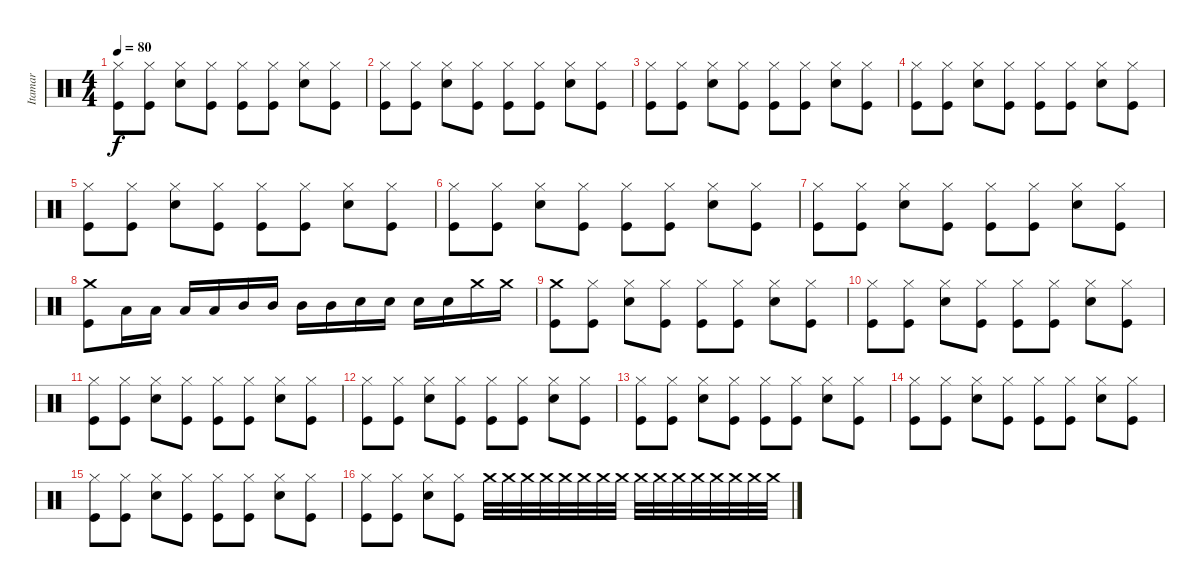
\track ("Itamar" "Itamar") {instrument percussion}
\staff {score}
\articulation defaults
\ts (4 4)
\tempo 80
\clef neutral
\ks c
("Hi-Hat (closed)" "Kick (hit)").8{dy f} ("Hi-Hat (closed)" "Kick (hit)").8 ("Hi-Hat (closed)" "Electric Snare (hit)").8 ("Hi-Hat (closed)" "Kick (hit)").8 ("Hi-Hat (closed)" "Kick (hit)").8 ("Hi-Hat (closed)" "Kick (hit)").8 ("Hi-Hat (closed)" "Electric Snare (hit)").8 ("Hi-Hat (closed)" "Kick (hit)").8 |
("Hi-Hat (closed)" "Kick (hit)").8 ("Hi-Hat (closed)" "Kick (hit)").8 ("Hi-Hat (closed)" "Electric Snare (hit)").8 ("Hi-Hat (closed)" "Kick (hit)").8 ("Hi-Hat (closed)" "Kick (hit)").8 ("Hi-Hat (closed)" "Kick (hit)").8 ("Hi-Hat (closed)" "Electric Snare (hit)").8 ("Hi-Hat (closed)" "Kick (hit)").8 |
("Hi-Hat (closed)" "Kick (hit)").8 ("Hi-Hat (closed)" "Kick (hit)").8 ("Hi-Hat (closed)" "Electric Snare (hit)").8 ("Hi-Hat (closed)" "Kick (hit)").8 ("Hi-Hat (closed)" "Kick (hit)").8 ("Hi-Hat (closed)" "Kick (hit)").8 ("Hi-Hat (closed)" "Electric Snare (hit)").8 ("Hi-Hat (closed)" "Kick (hit)").8 |
("Hi-Hat (closed)" "Kick (hit)").8 ("Hi-Hat (closed)" "Kick (hit)").8 ("Hi-Hat (closed)" "Electric Snare (hit)").8 ("Hi-Hat (closed)" "Kick (hit)").8 ("Hi-Hat (closed)" "Kick (hit)").8 ("Hi-Hat (closed)" "Kick (hit)").8 ("Hi-Hat (closed)" "Electric Snare (hit)").8 ("Hi-Hat (closed)" "Kick (hit)").8 |
("Hi-Hat (closed)" "Kick (hit)").8 ("Hi-Hat (closed)" "Kick (hit)").8 ("Hi-Hat (closed)" "Electric Snare (hit)").8 ("Hi-Hat (closed)" "Kick (hit)").8 ("Hi-Hat (closed)" "Kick (hit)").8 ("Hi-Hat (closed)" "Kick (hit)").8 ("Hi-Hat (closed)" "Electric Snare (hit)").8 ("Hi-Hat (closed)" "Kick (hit)").8 |
("Hi-Hat (closed)" "Kick (hit)").8 ("Hi-Hat (closed)" "Kick (hit)").8 ("Hi-Hat (closed)" "Electric Snare (hit)").8 ("Hi-Hat (closed)" "Kick (hit)").8 ("Hi-Hat (closed)" "Kick (hit)").8 ("Hi-Hat (closed)" "Kick (hit)").8 ("Hi-Hat (closed)" "Electric Snare (hit)").8 ("Hi-Hat (closed)" "Kick (hit)").8 |
("Hi-Hat (closed)" "Kick (hit)").8 ("Hi-Hat (closed)" "Kick (hit)").8 ("Hi-Hat (closed)" "Electric Snare (hit)").8 ("Hi-Hat (closed)" "Kick (hit)").8 ("Hi-Hat (closed)" "Kick (hit)").8 ("Hi-Hat (closed)" "Kick (hit)").8 ("Hi-Hat (closed)" "Electric Snare (hit)").8 ("Hi-Hat (closed)" "Kick (hit)").8 |
("Crash medium (hit)" "Kick (hit)").8 "Low Tom (hit)".16 "Low Tom (hit)".16 "Low Tom (hit)".16 "Low Tom (hit)".16 "Mid Tom (hit)".16 "Mid Tom (hit)".16 "Mid Tom (hit)".16 "Mid Tom (hit)".16 "Electric Snare (hit)".16 "Electric Snare (hit)".16 "Electric Snare (hit)".16 "Electric Snare (hit)".16 "Crash medium (hit)".16 "Crash medium (hit)".16 |
("Crash medium (hit)" "Kick (hit)").8 ("Hi-Hat (closed)" "Kick (hit)").8 ("Hi-Hat (closed)" "Electric Snare (hit)").8 ("Hi-Hat (closed)" "Kick (hit)").8 ("Hi-Hat (closed)" "Kick (hit)").8 ("Hi-Hat (closed)" "Kick (hit)").8 ("Hi-Hat (closed)" "Electric Snare (hit)").8 ("Hi-Hat (closed)" "Kick (hit)").8 |
("Hi-Hat (closed)" "Kick (hit)").8 ("Hi-Hat (closed)" "Kick (hit)").8 ("Hi-Hat (closed)" "Electric Snare (hit)").8 ("Hi-Hat (closed)" "Kick (hit)").8 ("Hi-Hat (closed)" "Kick (hit)").8 ("Hi-Hat (closed)" "Kick (hit)").8 ("Hi-Hat (closed)" "Electric Snare (hit)").8 ("Hi-Hat (closed)" "Kick (hit)").8 |
("Hi-Hat (closed)" "Kick (hit)").8 ("Hi-Hat (closed)" "Kick (hit)").8 ("Hi-Hat (closed)" "Electric Snare (hit)").8 ("Hi-Hat (closed)" "Kick (hit)").8 ("Hi-Hat (closed)" "Kick (hit)").8 ("Hi-Hat (closed)" "Kick (hit)").8 ("Hi-Hat (closed)" "Electric Snare (hit)").8 ("Hi-Hat (closed)" "Kick (hit)").8 |
("Hi-Hat (closed)" "Kick (hit)").8 ("Hi-Hat (closed)" "Kick (hit)").8 ("Hi-Hat (closed)" "Electric Snare (hit)").8 ("Hi-Hat (closed)" "Kick (hit)").8 ("Hi-Hat (closed)" "Kick (hit)").8 ("Hi-Hat (closed)" "Kick (hit)").8 ("Hi-Hat (closed)" "Electric Snare (hit)").8 ("Hi-Hat (closed)" "Kick (hit)").8 |
("Hi-Hat (closed)" "Kick (hit)").8 ("Hi-Hat (closed)" "Kick (hit)").8 ("Hi-Hat (closed)" "Electric Snare (hit)").8 ("Hi-Hat (closed)" "Kick (hit)").8 ("Hi-Hat (closed)" "Kick (hit)").8 ("Hi-Hat (closed)" "Kick (hit)").8 ("Hi-Hat (closed)" "Electric Snare (hit)").8 ("Hi-Hat (closed)" "Kick (hit)").8 |
("Hi-Hat (closed)" "Kick (hit)").8 ("Hi-Hat (closed)" "Kick (hit)").8 ("Hi-Hat (closed)" "Electric Snare (hit)").8 ("Hi-Hat (closed)" "Kick (hit)").8 ("Hi-Hat (closed)" "Kick (hit)").8 ("Hi-Hat (closed)" "Kick (hit)").8 ("Hi-Hat (closed)" "Electric Snare (hit)").8 ("Hi-Hat (closed)" "Kick (hit)").8 |
("Hi-Hat (closed)" "Kick (hit)").8 ("Hi-Hat (closed)" "Kick (hit)").8 ("Hi-Hat (closed)" "Electric Snare (hit)").8 ("Hi-Hat (closed)" "Kick (hit)").8 ("Hi-Hat (closed)" "Kick (hit)").8 ("Hi-Hat (closed)" "Kick (hit)").8 ("Hi-Hat (closed)" "Electric Snare (hit)").8 ("Hi-Hat (closed)" "Kick (hit)").8 |
("Hi-Hat (closed)" "Kick (hit)").8 ("Hi-Hat (closed)" "Kick (hit)").8 ("Hi-Hat (closed)" "Electric Snare (hit)").8 ("Hi-Hat (closed)" "Kick (hit)").8 "Crash medium (hit)".32 "Crash medium (hit)".32 "Crash medium (hit)".32 "Crash medium (hit)".32 "Crash medium (hit)".32 "Crash medium (hit)".32 "Crash medium (hit)".32 "Crash medium (hit)".32 "Crash medium (hit)".32 "Crash medium (hit)".32 "Crash medium (hit)".32 "Crash medium (hit)".32 "Crash medium (hit)".32 "Crash medium (hit)".32 "Crash medium (hit)".32 "Crash medium (hit)".32
